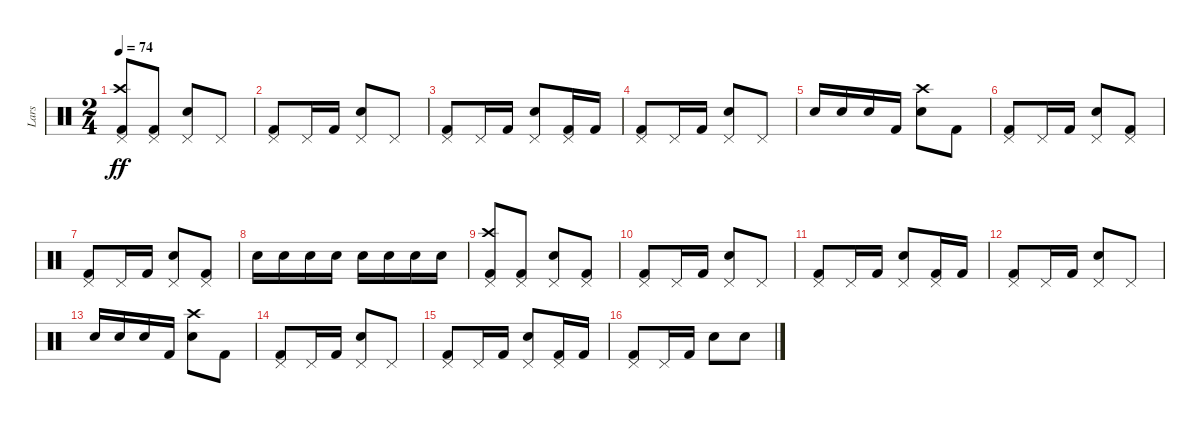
\track ("Lars" "Lars") {instrument percussion}
\staff {score}
\articulation defaults
\ts (2 4)
\tempo 74
\clef neutral
\ks c
("Pedal Hi-Hat (hit)" "Crash high (hit)" "Kick (hit) 2").8{dy ff} ("Pedal Hi-Hat (hit)" "Kick (hit) 2").8 ("Pedal Hi-Hat (hit)" "Snare (hit) 2").8 "Pedal Hi-Hat (hit)".8 |
("Pedal Hi-Hat (hit)" "Kick (hit) 2").8 "Pedal Hi-Hat (hit)".16 "Kick (hit) 2".16 ("Pedal Hi-Hat (hit)" "Snare (hit) 2").8 "Pedal Hi-Hat (hit)".8 |
("Pedal Hi-Hat (hit)" "Kick (hit) 2").8 "Pedal Hi-Hat (hit)".16 "Kick (hit) 2".16 ("Pedal Hi-Hat (hit)" "Snare (hit) 2").8 ("Pedal Hi-Hat (hit)" "Kick (hit) 2").16 "Kick (hit) 2".16 |
("Pedal Hi-Hat (hit)" "Kick (hit) 2").8 "Pedal Hi-Hat (hit)".16 "Kick (hit) 2".16 ("Pedal Hi-Hat (hit)" "Snare (hit) 2").8 "Pedal Hi-Hat (hit)".8 |
"Snare (hit) 2".16 "Snare (hit) 2".16 "Snare (hit) 2".16 "Kick (hit) 2".16 ("Crash high (hit)" "Snare (hit) 2").8 "Kick (hit) 2".8 |
("Pedal Hi-Hat (hit)" "Kick (hit) 2").8 "Pedal Hi-Hat (hit)".16 "Kick (hit) 2".16 ("Pedal Hi-Hat (hit)" "Snare (hit) 2").8 ("Pedal Hi-Hat (hit)" "Kick (hit) 2").8 |
("Pedal Hi-Hat (hit)" "Kick (hit) 2").8 "Pedal Hi-Hat (hit)".16 "Kick (hit) 2".16 ("Pedal Hi-Hat (hit)" "Snare (hit) 2").8 ("Pedal Hi-Hat (hit)" "Kick (hit) 2").8 |
"Snare (hit) 2".16 "Snare (hit) 2".16 "Snare (hit) 2".16 "Snare (hit) 2".16 "Snare (hit) 2".16 "Snare (hit) 2".16 "Snare (hit) 2".16 "Snare (hit) 2".16 |
("Pedal Hi-Hat (hit)" "Crash high (hit)" "Kick (hit) 2").8 ("Pedal Hi-Hat (hit)" "Kick (hit) 2").8 ("Pedal Hi-Hat (hit)" "Snare (hit) 2").8 ("Pedal Hi-Hat (hit)" "Kick (hit) 2").8 |
("Pedal Hi-Hat (hit)" "Kick (hit) 2").8 "Pedal Hi-Hat (hit)".16 "Kick (hit) 2".16 ("Pedal Hi-Hat (hit)" "Snare (hit) 2").8 "Pedal Hi-Hat (hit)".8 |
("Pedal Hi-Hat (hit)" "Kick (hit) 2").8 "Pedal Hi-Hat (hit)".16 "Kick (hit) 2".16 ("Pedal Hi-Hat (hit)" "Snare (hit) 2").8 ("Pedal Hi-Hat (hit)" "Kick (hit) 2").16 "Kick (hit) 2".16 |
("Pedal Hi-Hat (hit)" "Kick (hit) 2").8 "Pedal Hi-Hat (hit)".16 "Kick (hit) 2".16 ("Pedal Hi-Hat (hit)" "Snare (hit) 2").8 "Pedal Hi-Hat (hit)".8 |
"Snare (hit) 2".16 "Snare (hit) 2".16 "Snare (hit) 2".16 "Kick (hit) 2".16 ("Crash high (hit)" "Snare (hit) 2").8 "Kick (hit) 2".8 |
("Pedal Hi-Hat (hit)" "Kick (hit) 2").8 "Pedal Hi-Hat (hit)".16 "Kick (hit) 2".16 ("Pedal Hi-Hat (hit)" "Snare (hit) 2").8 "Pedal Hi-Hat (hit)".8 |
("Pedal Hi-Hat (hit)" "Kick (hit) 2").8 "Pedal Hi-Hat (hit)".16 "Kick (hit) 2".16 ("Pedal Hi-Hat (hit)" "Snare (hit) 2").8 ("Pedal Hi-Hat (hit)" "Kick (hit) 2").16 "Kick (hit) 2".16 |
("Pedal Hi-Hat (hit)" "Kick (hit) 2").8 "Pedal Hi-Hat (hit)".16 "Kick (hit) 2".16 "Snare (hit) 2".8 "Snare (hit) 2".8
